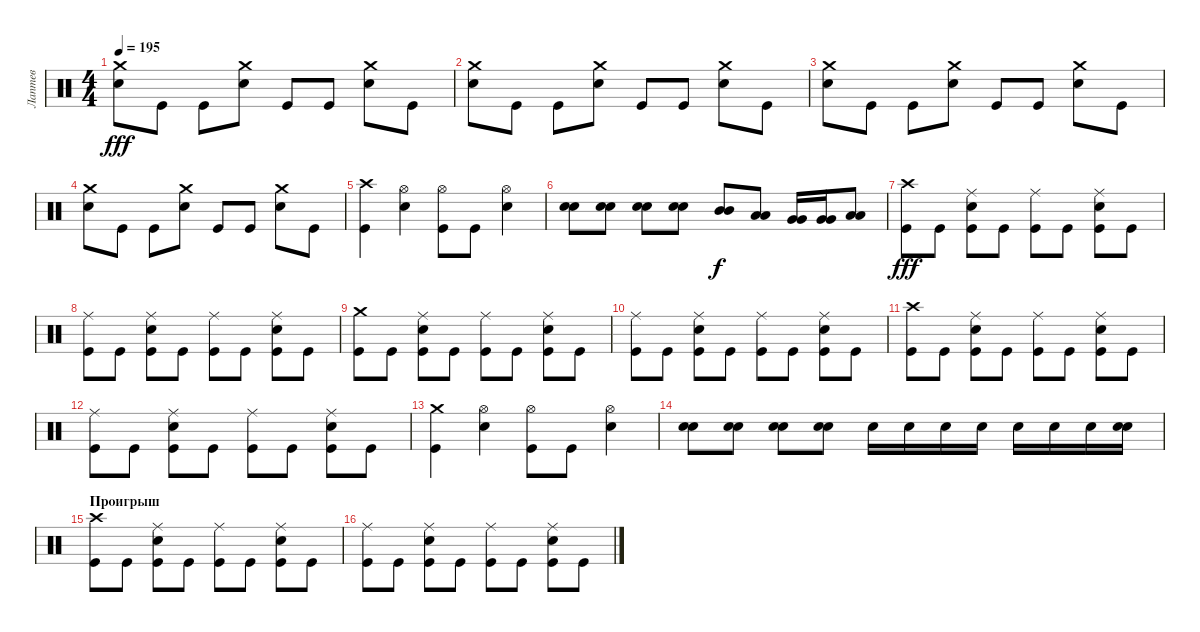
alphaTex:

\track ("Лаптев" "Лаптев") {instrument percussion}
\staff {score}
\articulation defaults
\ts (4 4)
\tempo 195
\clef neutral
\ks c
("Crash medium (hit)" "Electric Snare (hit)").8{dy fff} "Kick (hit)".8 "Kick (hit)".8 ("Crash medium (hit)" "Electric Snare (hit)").8 "Kick (hit)".8 "Kick (hit)".8 ("Crash medium (hit)" "Electric Snare (hit)").8 "Kick (hit)".8 |
("Crash medium (hit)" "Electric Snare (hit)").8 "Kick (hit)".8 "Kick (hit)".8 ("Crash medium (hit)" "Electric Snare (hit)").8 "Kick (hit)".8 "Kick (hit)".8 ("Crash medium (hit)" "Electric Snare (hit)").8 "Kick (hit)".8 |
("Crash medium (hit)" "Electric Snare (hit)").8 "Kick (hit)".8 "Kick (hit)".8 ("Crash medium (hit)" "Electric Snare (hit)").8 "Kick (hit)".8 "Kick (hit)".8 ("Crash medium (hit)" "Electric Snare (hit)").8 "Kick (hit)".8 |
("Crash medium (hit)" "Electric Snare (hit)").8 "Kick (hit)".8 "Kick (hit)".8 ("Crash medium (hit)" "Electric Snare (hit)").8 "Kick (hit)".8 "Kick (hit)".8 ("Crash medium (hit)" "Electric Snare (hit)").8 "Kick (hit)".8 |
("Crash high (hit)" "Kick (hit)").4 ("Hi-Hat (open)" "Electric Snare (hit)").4 ("Hi-Hat (open)" "Kick (hit)").8 "Kick (hit)".8 ("Hi-Hat (open)" "Electric Snare (hit)").4 |
("Electric Snare (hit)" "Electric Snare (hit)").8 ("Electric Snare (hit)" "Electric Snare (hit)").8 ("Electric Snare (hit)" "Electric Snare (hit)").8 ("Electric Snare (hit)" "Electric Snare (hit)").8 ("Mid Tom (hit)" "Mid Tom (hit)").8{dy f} ("Low Tom (hit)" "Low Tom (hit)").8 ("Very Low Tom (hit)" "Very Low Tom (hit)").16 ("Very Low Tom (hit)" "Very Low Tom (hit)").16 ("Low Floor Tom (hit)" "Low Floor Tom (hit)").8 |
("Crash high (hit)" "Kick (hit)").8{dy fff} "Kick (hit)".8 ("Ride (middle)" "Electric Snare (hit)" "Kick (hit)").8 "Kick (hit)".8 ("Ride (middle)" "Kick (hit)").8 "Kick (hit)".8 ("Ride (middle)" "Electric Snare (hit)" "Kick (hit)").8 "Kick (hit)".8 |
("Ride (middle)" "Kick (hit)").8 "Kick (hit)".8 ("Ride (middle)" "Electric Snare (hit)" "Kick (hit)").8 "Kick (hit)".8 ("Ride (middle)" "Kick (hit)").8 "Kick (hit)".8 ("Ride (middle)" "Electric Snare (hit)" "Kick (hit)").8 "Kick (hit)".8 |
("Crash medium (hit)" "Kick (hit)").8 "Kick (hit)".8 ("Ride (middle)" "Electric Snare (hit)" "Kick (hit)").8 "Kick (hit)".8 ("Ride (middle)" "Kick (hit)").8 "Kick (hit)".8 ("Ride (middle)" "Electric Snare (hit)" "Kick (hit)").8 "Kick (hit)".8 |
("Ride (middle)" "Kick (hit)").8 "Kick (hit)".8 ("Ride (middle)" "Electric Snare (hit)" "Kick (hit)").8 "Kick (hit)".8 ("Ride (middle)" "Kick (hit)").8 "Kick (hit)".8 ("Ride (middle)" "Electric Snare (hit)" "Kick (hit)").8 "Kick (hit)".8 |
("Crash high (hit)" "Kick (hit)").8 "Kick (hit)".8 ("Ride (middle)" "Electric Snare (hit)" "Kick (hit)").8 "Kick (hit)".8 ("Ride (middle)" "Kick (hit)").8 "Kick (hit)".8 ("Ride (middle)" "Electric Snare (hit)" "Kick (hit)").8 "Kick (hit)".8 |
("Ride (middle)" "Kick (hit)").8 "Kick (hit)".8 ("Ride (middle)" "Electric Snare (hit)" "Kick (hit)").8 "Kick (hit)".8 ("Ride (middle)" "Kick (hit)").8 "Kick (hit)".8 ("Ride (middle)" "Electric Snare (hit)" "Kick (hit)").8 "Kick (hit)".8 |
("Crash medium (hit)" "Kick (hit)").4 ("Hi-Hat (open)" "Electric Snare (hit)").4 ("Hi-Hat (open)" "Kick (hit)").8 "Kick (hit)".8 ("Hi-Hat (open)" "Electric Snare (hit)").4 |
("Electric Snare (hit)" "Electric Snare (hit)").8 ("Electric Snare (hit)" "Electric Snare (hit)").8 ("Electric Snare (hit)" "Electric Snare (hit)").8 ("Electric Snare (hit)" "Electric Snare (hit)").8 "Electric Snare (hit)".16 "Electric Snare (hit)".16 "Electric Snare (hit)".16 "Electric Snare (hit)".16 "Electric Snare (hit)".16 "Electric Snare (hit)".16 "Electric Snare (hit)".16 ("Electric Snare (hit)" "Electric Snare (hit)").16 |
\section ("" "Проигрыш")
("Crash high (hit)" "Kick (hit)").8 "Kick (hit)".8 ("Ride (middle)" "Electric Snare (hit)" "Kick (hit)").8 "Kick (hit)".8 ("Ride (middle)" "Kick (hit)").8 "Kick (hit)".8 ("Ride (middle)" "Electric Snare (hit)" "Kick (hit)").8 "Kick (hit)".8 |
("Ride (middle)" "Kick (hit)").8 "Kick (hit)".8 ("Ride (middle)" "Electric Snare (hit)" "Kick (hit)").8 "Kick (hit)".8 ("Ride (middle)" "Kick (hit)").8 "Kick (hit)".8 ("Ride (middle)" "Electric Snare (hit)" "Kick (hit)").8 "Kick (hit)".8
